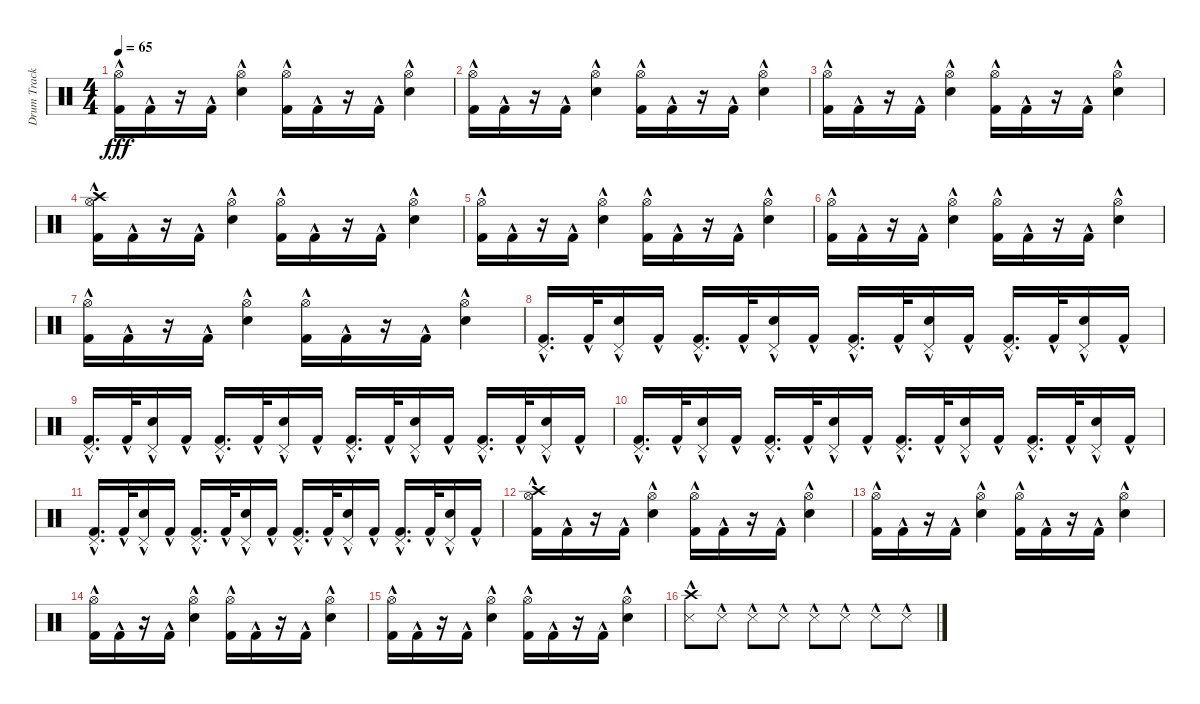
\track ("Drum Track" "Drum Track") {instrument percussion}
\staff {score}
\articulation defaults
\ts (4 4)
\tempo 65
\clef neutral
\ks c
("Hi-Hat (open)" "Kick (hit) 2"{hac}).16{dy fff} "Kick (hit) 2"{hac}.16 r.16 "Kick (hit) 2"{hac}.16 ("Hi-Hat (open)" "Electric Snare (hit)"{hac}).4 ("Hi-Hat (open)" "Kick (hit) 2"{hac}).16 "Kick (hit) 2"{hac}.16 r.16 "Kick (hit) 2"{hac}.16 ("Hi-Hat (open)" "Electric Snare (hit)"{hac}).4 |
("Hi-Hat (open)" "Kick (hit) 2"{hac}).16 "Kick (hit) 2"{hac}.16 r.16 "Kick (hit) 2"{hac}.16 ("Hi-Hat (open)" "Electric Snare (hit)"{hac}).4 ("Hi-Hat (open)" "Kick (hit) 2"{hac}).16 "Kick (hit) 2"{hac}.16 r.16 "Kick (hit) 2"{hac}.16 ("Hi-Hat (open)" "Electric Snare (hit)"{hac}).4 |
("Hi-Hat (open)" "Kick (hit) 2"{hac}).16 "Kick (hit) 2"{hac}.16 r.16 "Kick (hit) 2"{hac}.16 ("Hi-Hat (open)" "Electric Snare (hit)"{hac}).4 ("Hi-Hat (open)" "Kick (hit) 2"{hac}).16 "Kick (hit) 2"{hac}.16 r.16 "Kick (hit) 2"{hac}.16 ("Hi-Hat (open)" "Electric Snare (hit)"{hac}).4 |
("Crash high (hit)" "Hi-Hat (open)" "Kick (hit) 2"{hac}).16 "Kick (hit) 2"{hac}.16 r.16 "Kick (hit) 2"{hac}.16 ("Hi-Hat (open)" "Electric Snare (hit)"{hac}).4 ("Hi-Hat (open)" "Kick (hit) 2"{hac}).16 "Kick (hit) 2"{hac}.16 r.16 "Kick (hit) 2"{hac}.16 ("Hi-Hat (open)" "Electric Snare (hit)"{hac}).4 |
("Hi-Hat (open)" "Kick (hit) 2"{hac}).16 "Kick (hit) 2"{hac}.16 r.16 "Kick (hit) 2"{hac}.16 ("Hi-Hat (open)" "Electric Snare (hit)"{hac}).4 ("Hi-Hat (open)" "Kick (hit) 2"{hac}).16 "Kick (hit) 2"{hac}.16 r.16 "Kick (hit) 2"{hac}.16 ("Hi-Hat (open)" "Electric Snare (hit)"{hac}).4 |
("Hi-Hat (open)" "Kick (hit) 2"{hac}).16 "Kick (hit) 2"{hac}.16 r.16 "Kick (hit) 2"{hac}.16 ("Hi-Hat (open)" "Electric Snare (hit)"{hac}).4 ("Hi-Hat (open)" "Kick (hit) 2"{hac}).16 "Kick (hit) 2"{hac}.16 r.16 "Kick (hit) 2"{hac}.16 ("Hi-Hat (open)" "Electric Snare (hit)"{hac}).4 |
("Hi-Hat (open)" "Kick (hit) 2"{hac}).16 "Kick (hit) 2"{hac}.16 r.16 "Kick (hit) 2"{hac}.16 ("Hi-Hat (open)" "Electric Snare (hit)"{hac}).4 ("Hi-Hat (open)" "Kick (hit) 2"{hac}).16 "Kick (hit) 2"{hac}.16 r.16 "Kick (hit) 2"{hac}.16 ("Hi-Hat (open)" "Electric Snare (hit)"{hac}).4 |
("Pedal Hi-Hat (hit)" "Kick (hit) 2"{hac}).16{d} "Kick (hit) 2"{hac}.32 ("Pedal Hi-Hat (hit)" "Electric Snare (hit)"{hac}).16 "Kick (hit) 2"{hac}.16 ("Pedal Hi-Hat (hit)" "Kick (hit) 2"{hac}).16{d} "Kick (hit) 2"{hac}.32 ("Pedal Hi-Hat (hit)" "Electric Snare (hit)"{hac}).16 "Kick (hit) 2"{hac}.16 ("Pedal Hi-Hat (hit)" "Kick (hit) 2"{hac}).16{d} "Kick (hit) 2"{hac}.32 ("Pedal Hi-Hat (hit)" "Electric Snare (hit)"{hac}).16 "Kick (hit) 2"{hac}.16 ("Pedal Hi-Hat (hit)" "Kick (hit) 2"{hac}).16{d} "Kick (hit) 2"{hac}.32 ("Pedal Hi-Hat (hit)" "Electric Snare (hit)"{hac}).16 "Kick (hit) 2"{hac}.16 |
("Pedal Hi-Hat (hit)" "Kick (hit) 2"{hac}).16{d} "Kick (hit) 2"{hac}.32 ("Pedal Hi-Hat (hit)" "Electric Snare (hit)"{hac}).16 "Kick (hit) 2"{hac}.16 ("Pedal Hi-Hat (hit)" "Kick (hit) 2"{hac}).16{d} "Kick (hit) 2"{hac}.32 ("Pedal Hi-Hat (hit)" "Electric Snare (hit)"{hac}).16 "Kick (hit) 2"{hac}.16 ("Pedal Hi-Hat (hit)" "Kick (hit) 2"{hac}).16{d} "Kick (hit) 2"{hac}.32 ("Pedal Hi-Hat (hit)" "Electric Snare (hit)"{hac}).16 "Kick (hit) 2"{hac}.16 ("Pedal Hi-Hat (hit)" "Kick (hit) 2"{hac}).16{d} "Kick (hit) 2"{hac}.32 ("Pedal Hi-Hat (hit)" "Electric Snare (hit)"{hac}).16 "Kick (hit) 2"{hac}.16 |
("Pedal Hi-Hat (hit)" "Kick (hit) 2"{hac}).16{d} "Kick (hit) 2"{hac}.32 ("Pedal Hi-Hat (hit)" "Electric Snare (hit)"{hac}).16 "Kick (hit) 2"{hac}.16 ("Pedal Hi-Hat (hit)" "Kick (hit) 2"{hac}).16{d} "Kick (hit) 2"{hac}.32 ("Pedal Hi-Hat (hit)" "Electric Snare (hit)"{hac}).16 "Kick (hit) 2"{hac}.16 ("Pedal Hi-Hat (hit)" "Kick (hit) 2"{hac}).16{d} "Kick (hit) 2"{hac}.32 ("Pedal Hi-Hat (hit)" "Electric Snare (hit)"{hac}).16 "Kick (hit) 2"{hac}.16 ("Pedal Hi-Hat (hit)" "Kick (hit) 2"{hac}).16{d} "Kick (hit) 2"{hac}.32 ("Pedal Hi-Hat (hit)" "Electric Snare (hit)"{hac}).16 "Kick (hit) 2"{hac}.16 |
("Pedal Hi-Hat (hit)" "Kick (hit) 2"{hac}).16{d} "Kick (hit) 2"{hac}.32 ("Pedal Hi-Hat (hit)" "Electric Snare (hit)"{hac}).16 "Kick (hit) 2"{hac}.16 ("Pedal Hi-Hat (hit)" "Kick (hit) 2"{hac}).16{d} "Kick (hit) 2"{hac}.32 ("Pedal Hi-Hat (hit)" "Electric Snare (hit)"{hac}).16 "Kick (hit) 2"{hac}.16 ("Pedal Hi-Hat (hit)" "Kick (hit) 2"{hac}).16{d} "Kick (hit) 2"{hac}.32 ("Pedal Hi-Hat (hit)" "Electric Snare (hit)"{hac}).16 "Kick (hit) 2"{hac}.16 ("Pedal Hi-Hat (hit)" "Kick (hit) 2"{hac}).16{d} "Kick (hit) 2"{hac}.32 ("Pedal Hi-Hat (hit)" "Electric Snare (hit)"{hac}).16 "Kick (hit) 2"{hac}.16 |
("Crash high (hit)" "Hi-Hat (open)" "Kick (hit) 2"{hac}).16 "Kick (hit) 2"{hac}.16 r.16 "Kick (hit) 2"{hac}.16 ("Hi-Hat (open)" "Electric Snare (hit)"{hac}).4 ("Hi-Hat (open)" "Kick (hit) 2"{hac}).16 "Kick (hit) 2"{hac}.16 r.16 "Kick (hit) 2"{hac}.16 ("Hi-Hat (open)" "Electric Snare (hit)"{hac}).4 |
("Hi-Hat (open)" "Kick (hit) 2"{hac}).16 "Kick (hit) 2"{hac}.16 r.16 "Kick (hit) 2"{hac}.16 ("Hi-Hat (open)" "Electric Snare (hit)"{hac}).4 ("Hi-Hat (open)" "Kick (hit) 2"{hac}).16 "Kick (hit) 2"{hac}.16 r.16 "Kick (hit) 2"{hac}.16 ("Hi-Hat (open)" "Electric Snare (hit)"{hac}).4 |
("Hi-Hat (open)" "Kick (hit) 2"{hac}).16 "Kick (hit) 2"{hac}.16 r.16 "Kick (hit) 2"{hac}.16 ("Hi-Hat (open)" "Electric Snare (hit)"{hac}).4 ("Hi-Hat (open)" "Kick (hit) 2"{hac}).16 "Kick (hit) 2"{hac}.16 r.16 "Kick (hit) 2"{hac}.16 ("Hi-Hat (open)" "Electric Snare (hit)"{hac}).4 |
("Hi-Hat (open)" "Kick (hit) 2"{hac}).16 "Kick (hit) 2"{hac}.16 r.16 "Kick (hit) 2"{hac}.16 ("Hi-Hat (open)" "Electric Snare (hit)"{hac}).4 ("Hi-Hat (open)" "Kick (hit) 2"{hac}).16 "Kick (hit) 2"{hac}.16 r.16 "Kick (hit) 2"{hac}.16 ("Hi-Hat (open)" "Electric Snare (hit)"{hac}).4 |
("Crash high (hit)" "Snare (side stick) 3"{hac}).8 "Snare (side stick) 3"{hac}.8 "Snare (side stick) 3"{hac}.8 "Snare (side stick) 3"{hac}.8 "Snare (side stick) 3"{hac}.8 "Snare (side stick) 3"{hac}.8 "Snare (side stick) 3"{hac}.8 "Snare (side stick) 3"{hac}.8
